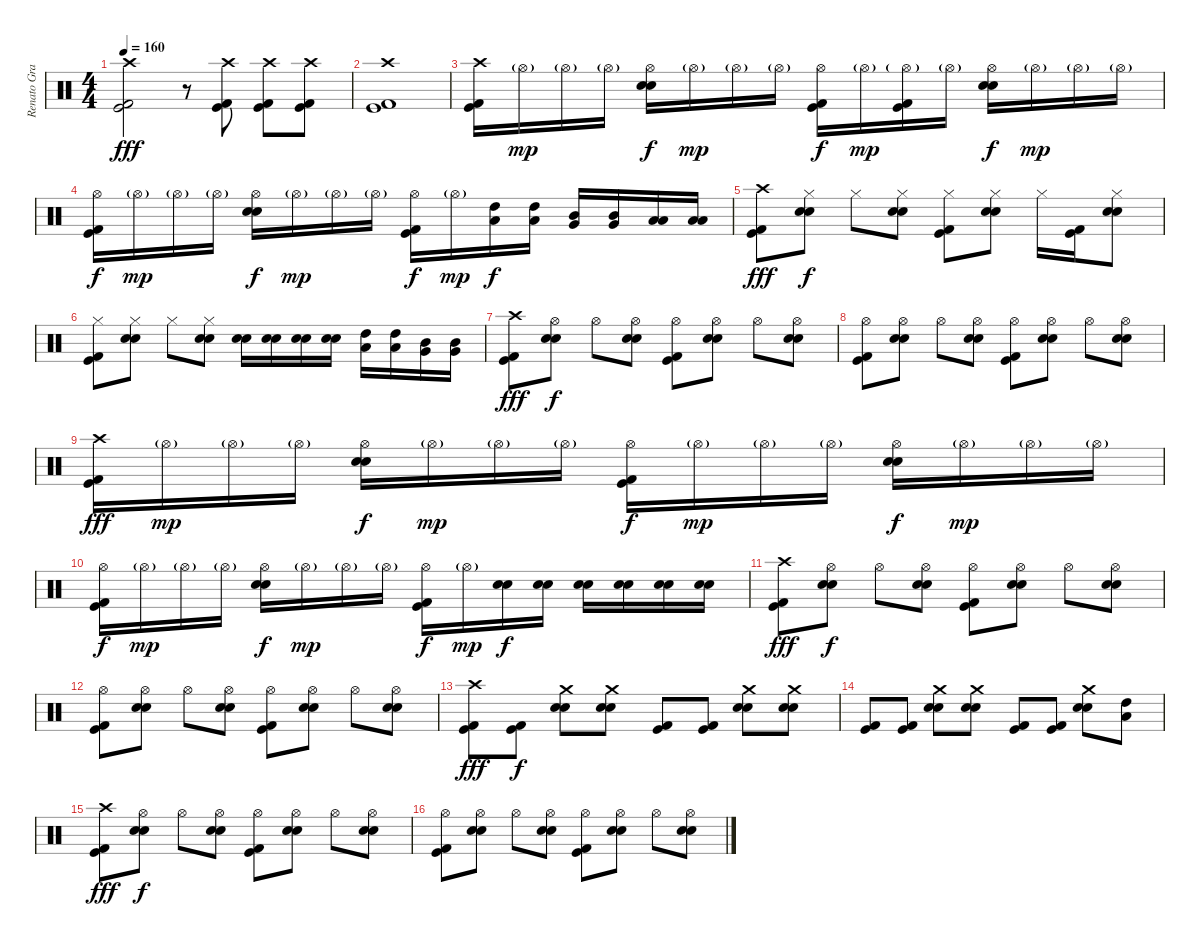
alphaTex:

\track ("Renato Graccia" "Renato Gra") {instrument percussion}
\staff {score}
\articulation defaults
\ts (4 4)
\tempo 160
\clef neutral
\ks c
("Crash high (hit)" "Kick (hit) 2" "Kick (hit)").2{dy fff} r.8 ("Crash high (hit)" "Kick (hit) 2" "Kick (hit)").8 ("Crash high (hit)" "Kick (hit) 2" "Kick (hit)").8 ("Crash high (hit)" "Kick (hit) 2" "Kick (hit)").8 |
("Crash high (hit)" "Kick (hit) 2" "Kick (hit)").1 |
("Crash high (hit)" "Kick (hit) 2" "Kick (hit)").16 "Hi-Hat (open)"{g}.16{dy mp} "Hi-Hat (open)"{g}.16 "Hi-Hat (open)"{g}.16 ("Hi-Hat (open)" "Electric Snare (hit)" "Snare (hit) 2").16{dy f} "Hi-Hat (open)"{g}.16{dy mp} "Hi-Hat (open)"{g}.16 "Hi-Hat (open)"{g}.16 ("Hi-Hat (open)" "Kick (hit) 2" "Kick (hit)").16{dy f} "Hi-Hat (open)"{g}.16{dy mp} ("Hi-Hat (open)"{g} "Kick (hit) 2" "Kick (hit)").16 "Hi-Hat (open)"{g}.16 ("Hi-Hat (open)" "Electric Snare (hit)" "Snare (hit) 2").16{dy f} "Hi-Hat (open)"{g}.16{dy mp} "Hi-Hat (open)"{g}.16 "Hi-Hat (open)"{g}.16 |
("Hi-Hat (open)" "Kick (hit) 2" "Kick (hit)").16{dy f} "Hi-Hat (open)"{g}.16{dy mp} "Hi-Hat (open)"{g}.16 "Hi-Hat (open)"{g}.16 ("Hi-Hat (open)" "Electric Snare (hit)" "Snare (hit) 2").16{dy f} "Hi-Hat (open)"{g}.16{dy mp} "Hi-Hat (open)"{g}.16 "Hi-Hat (open)"{g}.16 ("Hi-Hat (open)" "Kick (hit) 2" "Kick (hit)").16{dy f} "Hi-Hat (open)"{g}.16{dy mp} ("High Tom (hit)" "Low Tom (hit)").16{dy f} ("High Tom (hit)" "Low Tom (hit)").16 ("Mid Tom (hit)" "Very Low Tom (hit)").16 ("Mid Tom (hit)" "Very Low Tom (hit)").16 ("Low Tom (hit)" "Low Floor Tom (hit)").16 ("Low Tom (hit)" "Low Floor Tom (hit)").16 |
("Crash high (hit)" "Kick (hit) 2" "Kick (hit)").8{dy fff} ("Hi-Hat (closed)" "Electric Snare (hit)" "Snare (hit) 2").8{dy f} "Hi-Hat (closed)".8 ("Hi-Hat (closed)" "Electric Snare (hit)" "Snare (hit) 2").8 ("Hi-Hat (closed)" "Kick (hit) 2" "Kick (hit)").8 ("Hi-Hat (closed)" "Electric Snare (hit)" "Snare (hit) 2").8 "Hi-Hat (closed)".16 ("Kick (hit) 2" "Kick (hit)").16 ("Hi-Hat (closed)" "Electric Snare (hit)" "Snare (hit) 2").8 |
("Hi-Hat (closed)" "Kick (hit) 2" "Kick (hit)").8 ("Hi-Hat (closed)" "Electric Snare (hit)" "Snare (hit) 2").8 "Hi-Hat (closed)".8 ("Hi-Hat (closed)" "Electric Snare (hit)" "Snare (hit) 2").8 ("Electric Snare (hit)" "Snare (hit) 2").16 ("Electric Snare (hit)" "Snare (hit) 2").16 ("Electric Snare (hit)" "Snare (hit) 2").16 ("Electric Snare (hit)" "Snare (hit) 2").16 ("High Tom (hit)" "Low Tom (hit)").16 ("High Tom (hit)" "Low Tom (hit)").16 ("Mid Tom (hit)" "Very Low Tom (hit)").16 ("Mid Tom (hit)" "Very Low Tom (hit)").16 |
("Crash high (hit)" "Kick (hit) 2" "Kick (hit)").8{dy fff} ("Hi-Hat (open)" "Electric Snare (hit)" "Snare (hit) 2").8{dy f} "Hi-Hat (open)".8 ("Hi-Hat (open)" "Electric Snare (hit)" "Snare (hit) 2").8 ("Hi-Hat (open)" "Kick (hit) 2" "Kick (hit)").8 ("Hi-Hat (open)" "Electric Snare (hit)" "Snare (hit) 2").8 "Hi-Hat (open)".8 ("Hi-Hat (open)" "Electric Snare (hit)" "Snare (hit) 2").8 |
("Hi-Hat (open)" "Kick (hit) 2" "Kick (hit)").8 ("Hi-Hat (open)" "Electric Snare (hit)" "Snare (hit) 2").8 "Hi-Hat (open)".8 ("Hi-Hat (open)" "Electric Snare (hit)" "Snare (hit) 2").8 ("Hi-Hat (open)" "Kick (hit) 2" "Kick (hit)").8 ("Hi-Hat (open)" "Electric Snare (hit)" "Snare (hit) 2").8 "Hi-Hat (open)".8 ("Hi-Hat (open)" "Electric Snare (hit)" "Snare (hit) 2").8 |
("Crash high (hit)" "Kick (hit) 2" "Kick (hit)").16{dy fff} "Hi-Hat (open)"{g}.16{dy mp} "Hi-Hat (open)"{g}.16 "Hi-Hat (open)"{g}.16 ("Hi-Hat (open)" "Electric Snare (hit)" "Snare (hit) 2").16{dy f} "Hi-Hat (open)"{g}.16{dy mp} "Hi-Hat (open)"{g}.16 "Hi-Hat (open)"{g}.16 ("Hi-Hat (open)" "Kick (hit) 2" "Kick (hit)").16{dy f} "Hi-Hat (open)"{g}.16{dy mp} "Hi-Hat (open)"{g}.16 "Hi-Hat (open)"{g}.16 ("Hi-Hat (open)" "Electric Snare (hit)" "Snare (hit) 2").16{dy f} "Hi-Hat (open)"{g}.16{dy mp} "Hi-Hat (open)"{g}.16 "Hi-Hat (open)"{g}.16 |
("Hi-Hat (open)" "Kick (hit) 2" "Kick (hit)").16{dy f} "Hi-Hat (open)"{g}.16{dy mp} "Hi-Hat (open)"{g}.16 "Hi-Hat (open)"{g}.16 ("Hi-Hat (open)" "Electric Snare (hit)" "Snare (hit) 2").16{dy f} "Hi-Hat (open)"{g}.16{dy mp} "Hi-Hat (open)"{g}.16 "Hi-Hat (open)"{g}.16 ("Hi-Hat (open)" "Kick (hit) 2" "Kick (hit)").16{dy f} "Hi-Hat (open)"{g}.16{dy mp} ("Electric Snare (hit)" "Snare (hit) 2").16{dy f} ("Electric Snare (hit)" "Snare (hit) 2").16 ("Electric Snare (hit)" "Snare (hit) 2").16 ("Electric Snare (hit)" "Snare (hit) 2").16 ("Electric Snare (hit)" "Snare (hit) 2").16 ("Electric Snare (hit)" "Snare (hit) 2").16 |
("Crash high (hit)" "Kick (hit) 2" "Kick (hit)").8{dy fff} ("Hi-Hat (open)" "Electric Snare (hit)" "Snare (hit) 2").8{dy f} "Hi-Hat (open)".8 ("Hi-Hat (open)" "Electric Snare (hit)" "Snare (hit) 2").8 ("Hi-Hat (open)" "Kick (hit) 2" "Kick (hit)").8 ("Hi-Hat (open)" "Electric Snare (hit)" "Snare (hit) 2").8 "Hi-Hat (open)".8 ("Hi-Hat (open)" "Electric Snare (hit)" "Snare (hit) 2").8 |
("Hi-Hat (open)" "Kick (hit) 2" "Kick (hit)").8 ("Hi-Hat (open)" "Electric Snare (hit)" "Snare (hit) 2").8 "Hi-Hat (open)".8 ("Hi-Hat (open)" "Electric Snare (hit)" "Snare (hit) 2").8 ("Hi-Hat (open)" "Kick (hit) 2" "Kick (hit)").8 ("Hi-Hat (open)" "Electric Snare (hit)" "Snare (hit) 2").8 "Hi-Hat (open)".8 ("Hi-Hat (open)" "Electric Snare (hit)" "Snare (hit) 2").8 |
("Crash high (hit)" "Kick (hit) 2" "Kick (hit)").8{dy fff} ("Kick (hit) 2" "Kick (hit)").8{dy f} ("Crash medium (hit)" "Electric Snare (hit)" "Snare (hit) 2").8 ("Crash medium (hit)" "Electric Snare (hit)" "Snare (hit) 2").8 ("Kick (hit) 2" "Kick (hit)").8 ("Kick (hit) 2" "Kick (hit)").8 ("Crash medium (hit)" "Electric Snare (hit)" "Snare (hit) 2").8 ("Crash medium (hit)" "Electric Snare (hit)" "Snare (hit) 2").8 |
("Kick (hit) 2" "Kick (hit)").8 ("Kick (hit) 2" "Kick (hit)").8 ("Crash medium (hit)" "Electric Snare (hit)" "Snare (hit) 2").8 ("Crash medium (hit)" "Electric Snare (hit)" "Snare (hit) 2").8 ("Kick (hit) 2" "Kick (hit)").8 ("Kick (hit) 2" "Kick (hit)").8 ("Crash medium (hit)" "Electric Snare (hit)" "Snare (hit) 2").8 ("High Tom (hit)" "Low Tom (hit)").8 |
("Crash high (hit)" "Kick (hit) 2" "Kick (hit)").8{dy fff} ("Hi-Hat (open)" "Electric Snare (hit)" "Snare (hit) 2").8{dy f} "Hi-Hat (open)".8 ("Hi-Hat (open)" "Electric Snare (hit)" "Snare (hit) 2").8 ("Hi-Hat (open)" "Kick (hit) 2" "Kick (hit)").8 ("Hi-Hat (open)" "Electric Snare (hit)" "Snare (hit) 2").8 "Hi-Hat (open)".8 ("Hi-Hat (open)" "Electric Snare (hit)" "Snare (hit) 2").8 |
("Hi-Hat (open)" "Kick (hit) 2" "Kick (hit)").8 ("Hi-Hat (open)" "Electric Snare (hit)" "Snare (hit) 2").8 "Hi-Hat (open)".8 ("Hi-Hat (open)" "Electric Snare (hit)" "Snare (hit) 2").8 ("Hi-Hat (open)" "Kick (hit) 2" "Kick (hit)").8 ("Hi-Hat (open)" "Electric Snare (hit)" "Snare (hit) 2").8 "Hi-Hat (open)".8 ("Hi-Hat (open)" "Electric Snare (hit)" "Snare (hit) 2").8
